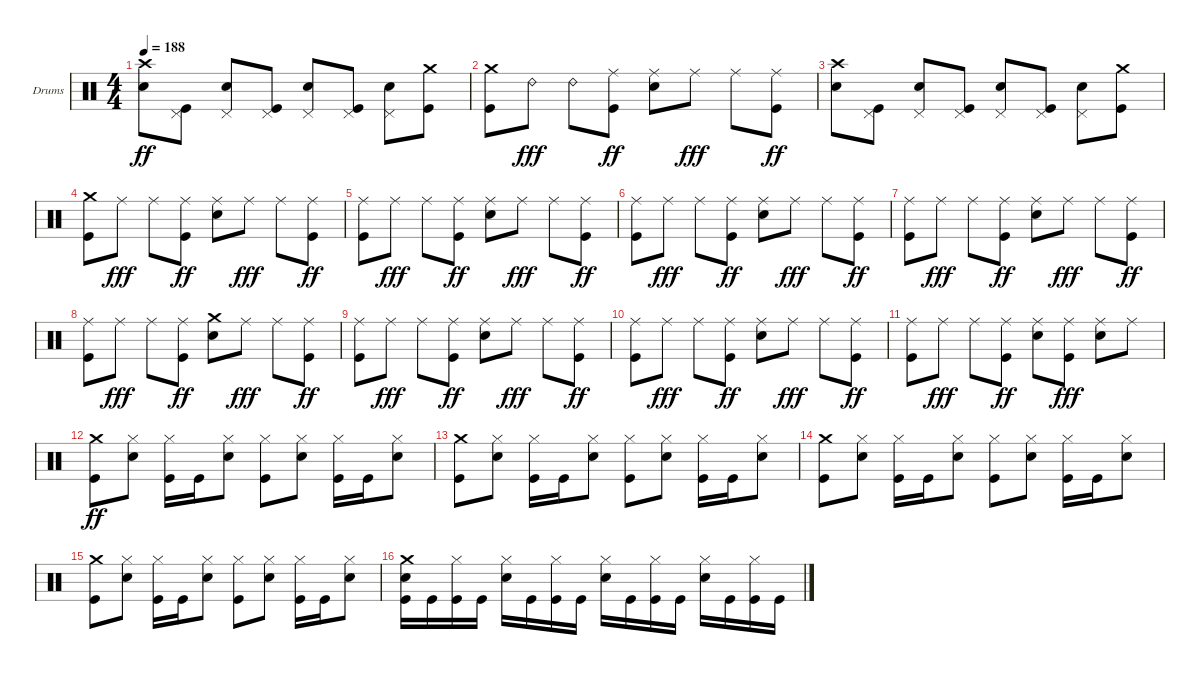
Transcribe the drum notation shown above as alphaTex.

\bracketExtendMode groupsimilarinstruments
\firstSystemTrackNameOrientation horizontal
\otherSystemsTrackNameOrientation horizontal
\track ("Drums" "Drums") {instrument percussion}
\staff {score}
\articulation defaults
\ts (4 4)
\tempo 188
\clef neutral
\ks c
("Snare (hit) 2" "Crash high (hit)").8{dy ff} ("Kick (hit)" "Pedal Hi-Hat (hit)").8 ("Snare (hit) 2" "Pedal Hi-Hat (hit)").8 ("Kick (hit)" "Pedal Hi-Hat (hit)").8 ("Snare (hit) 2" "Pedal Hi-Hat (hit)").8 ("Kick (hit)" "Pedal Hi-Hat (hit)").8 ("Snare (hit) 2" "Pedal Hi-Hat (hit)").8 ("Kick (hit)" "Crash medium (hit)").8 |
("Kick (hit)" "Crash medium (hit)").8 "Ride (bell) 2".8{dy fff} "Ride (bell) 2".8 ("Kick (hit)" "Ride (middle)").8{dy ff} ("Snare (hit) 2" "Ride (middle)").8 "Ride (middle)".8{dy fff} "Ride (middle)".8 ("Ride (middle)" "Kick (hit)").8{dy ff} |
("Snare (hit) 2" "Crash high (hit)").8 ("Kick (hit)" "Pedal Hi-Hat (hit)").8 ("Snare (hit) 2" "Pedal Hi-Hat (hit)").8 ("Kick (hit)" "Pedal Hi-Hat (hit)").8 ("Snare (hit) 2" "Pedal Hi-Hat (hit)").8 ("Kick (hit)" "Pedal Hi-Hat (hit)").8 ("Snare (hit) 2" "Pedal Hi-Hat (hit)").8 ("Kick (hit)" "Crash medium (hit)").8 |
("Kick (hit)" "Crash medium (hit)").8 "Ride (middle)".8{dy fff} "Ride (middle)".8 ("Kick (hit)" "Ride (middle)").8{dy ff} ("Snare (hit) 2" "Ride (middle)").8 "Ride (middle)".8{dy fff} "Ride (middle)".8 ("Ride (middle)" "Kick (hit)").8{dy ff} |
("Kick (hit)" "Ride (middle)").8 "Ride (middle)".8{dy fff} "Ride (middle)".8 ("Kick (hit)" "Ride (middle)").8{dy ff} ("Snare (hit) 2" "Ride (middle)").8 "Ride (middle)".8{dy fff} "Ride (middle)".8 ("Ride (middle)" "Kick (hit)").8{dy ff} |
("Kick (hit)" "Ride (middle)").8 "Ride (middle)".8{dy fff} "Ride (middle)".8 ("Kick (hit)" "Ride (middle)").8{dy ff} ("Snare (hit) 2" "Ride (middle)").8 "Ride (middle)".8{dy fff} "Ride (middle)".8 ("Ride (middle)" "Kick (hit)").8{dy ff} |
("Kick (hit)" "Ride (middle)").8 "Ride (middle)".8{dy fff} "Ride (middle)".8 ("Kick (hit)" "Ride (middle)").8{dy ff} ("Snare (hit) 2" "Ride (middle)").8 "Ride (middle)".8{dy fff} "Ride (middle)".8 ("Ride (middle)" "Kick (hit)").8{dy ff} |
("Kick (hit)" "Ride (middle)").8 "Ride (middle)".8{dy fff} "Ride (middle)".8 ("Kick (hit)" "Ride (middle)").8{dy ff} ("Snare (hit) 2" "Crash medium (hit)").8 "Ride (middle)".8{dy fff} "Ride (middle)".8 ("Ride (middle)" "Kick (hit)").8{dy ff} |
("Kick (hit)" "Ride (middle)").8 "Ride (middle)".8{dy fff} "Ride (middle)".8 ("Kick (hit)" "Ride (middle)").8{dy ff} ("Snare (hit) 2" "Ride (middle)").8 "Ride (middle)".8{dy fff} "Ride (middle)".8 ("Ride (middle)" "Kick (hit)").8{dy ff} |
("Kick (hit)" "Ride (middle)").8 "Ride (middle)".8{dy fff} "Ride (middle)".8 ("Kick (hit)" "Ride (middle)").8{dy ff} ("Snare (hit) 2" "Ride (middle)").8 "Ride (middle)".8{dy fff} "Ride (middle)".8 ("Ride (middle)" "Kick (hit)").8{dy ff} |
("Kick (hit)" "Ride (middle)").8 "Ride (middle)".8{dy fff} "Ride (middle)".8 ("Kick (hit)" "Ride (middle)").8{dy ff} ("Snare (hit) 2" "Ride (middle)").8 ("Ride (middle)" "Kick (hit)").8{dy fff} ("Ride (middle)" "Snare (hit) 2").8 "Ride (middle)".8 |
("Kick (hit)" "Crash medium (hit)").8{dy ff} ("Snare (hit) 2" "Hi-Hat (closed)").8 ("Hi-Hat (closed)" "Kick (hit)").16 "Kick (hit)".16 ("Snare (hit) 2" "Hi-Hat (closed)").8 ("Hi-Hat (closed)" "Kick (hit)").8 ("Snare (hit) 2" "Hi-Hat (closed)").8 ("Hi-Hat (closed)" "Kick (hit)").16 "Kick (hit)".16 ("Snare (hit) 2" "Hi-Hat (closed)").8 |
("Kick (hit)" "Crash medium (hit)").8 ("Snare (hit) 2" "Hi-Hat (closed)").8 ("Hi-Hat (closed)" "Kick (hit)").16 "Kick (hit)".16 ("Snare (hit) 2" "Hi-Hat (closed)").8 ("Hi-Hat (closed)" "Kick (hit)").8 ("Snare (hit) 2" "Hi-Hat (closed)").8 ("Hi-Hat (closed)" "Kick (hit)").16 "Kick (hit)".16 ("Snare (hit) 2" "Hi-Hat (closed)").8 |
("Kick (hit)" "Crash medium (hit)").8 ("Snare (hit) 2" "Hi-Hat (closed)").8 ("Hi-Hat (closed)" "Kick (hit)").16 "Kick (hit)".16 ("Snare (hit) 2" "Hi-Hat (closed)").8 ("Hi-Hat (closed)" "Kick (hit)").8 ("Snare (hit) 2" "Hi-Hat (closed)").8 ("Hi-Hat (closed)" "Kick (hit)").16 "Kick (hit)".16 ("Snare (hit) 2" "Hi-Hat (closed)").8 |
("Kick (hit)" "Crash medium (hit)").8 ("Snare (hit) 2" "Hi-Hat (closed)").8 ("Hi-Hat (closed)" "Kick (hit)").16 "Kick (hit)".16 ("Snare (hit) 2" "Hi-Hat (closed)").8 ("Hi-Hat (closed)" "Kick (hit)").8 ("Snare (hit) 2" "Hi-Hat (closed)").8 ("Hi-Hat (closed)" "Kick (hit)").16 "Kick (hit)".16 ("Snare (hit) 2" "Hi-Hat (closed)").8 |
("Kick (hit)" "Crash medium (hit)" "Snare (hit) 2").16 "Kick (hit)".16 ("Kick (hit)" "Hi-Hat (closed)").16 "Kick (hit)".16 ("Snare (hit) 2" "Hi-Hat (closed)").16 "Kick (hit)".16 ("Kick (hit)" "Hi-Hat (closed)").16 "Kick (hit)".16 ("Snare (hit) 2" "Hi-Hat (closed)").16 "Kick (hit)".16 ("Kick (hit)" "Hi-Hat (closed)").16 "Kick (hit)".16 ("Snare (hit) 2" "Hi-Hat (closed)").16 "Kick (hit)".16 ("Kick (hit)" "Hi-Hat (closed)").16 "Kick (hit)".16
